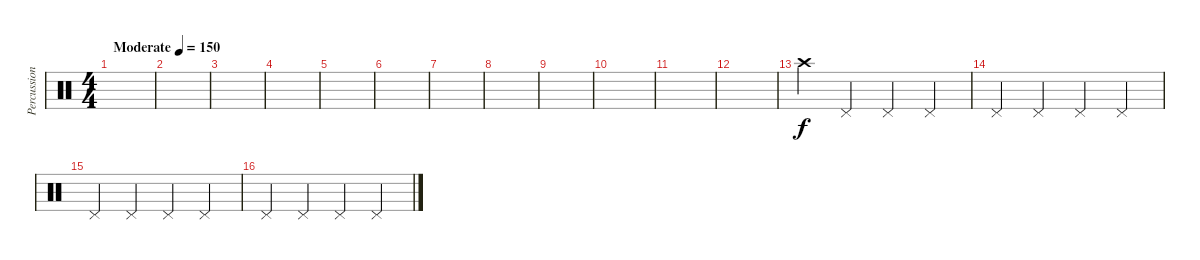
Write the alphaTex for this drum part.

\track ("Percussion" "Percussion") {instrument percussion}
\staff {score}
\articulation defaults
\ts (4 4)
\tempo (150 "Moderate")
\clef neutral
\ks c
|
|
|
|
|
|
|
|
|
|
|
|
"Crash high (hit)".4 "Pedal Hi-Hat (hit)".4 "Pedal Hi-Hat (hit)".4 "Pedal Hi-Hat (hit)".4 |
"Pedal Hi-Hat (hit)".4 "Pedal Hi-Hat (hit)".4 "Pedal Hi-Hat (hit)".4 "Pedal Hi-Hat (hit)".4 |
"Pedal Hi-Hat (hit)".4 "Pedal Hi-Hat (hit)".4 "Pedal Hi-Hat (hit)".4 "Pedal Hi-Hat (hit)".4 |
"Pedal Hi-Hat (hit)".4 "Pedal Hi-Hat (hit)".4 "Pedal Hi-Hat (hit)".4 "Pedal Hi-Hat (hit)".4
